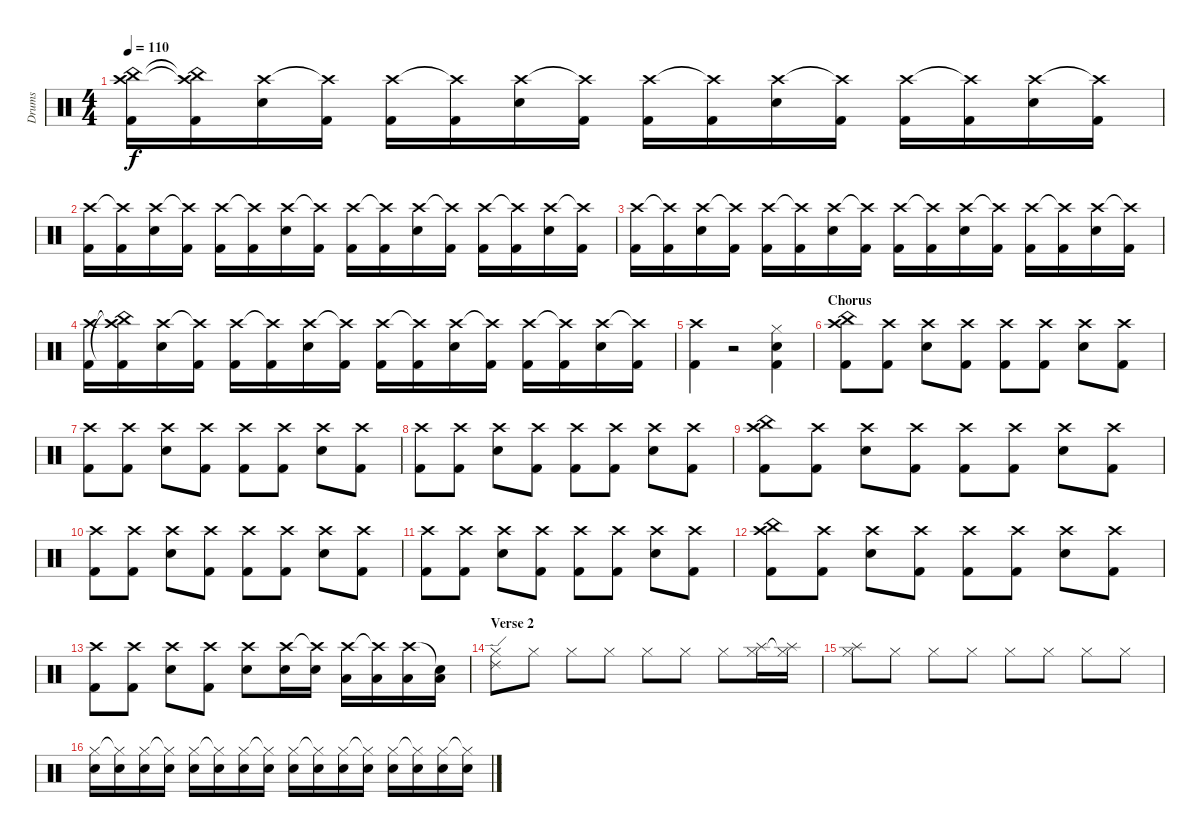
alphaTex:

\track ("Drums" "Drums") {instrument percussion}
\staff {score}
\articulation defaults
\ts (4 4)
\tempo 110
\clef neutral
\ks c
("Crash high (hit)" "China (hit)" "Kick (hit) 2").16{dy f} ("Crash high (hit)"{t} "China (hit)"{t} "Kick (hit) 2").16 ("Crash high (hit)" "Snare (hit) 2").16 ("Crash high (hit)"{t} "Kick (hit) 2").16 ("Crash high (hit)" "Kick (hit) 2").16 ("Crash high (hit)"{t} "Kick (hit) 2").16 ("Crash high (hit)" "Snare (hit) 2").16 ("Crash high (hit)"{t} "Kick (hit) 2").16 ("Crash high (hit)" "Kick (hit) 2").16 ("Crash high (hit)"{t} "Kick (hit) 2").16 ("Crash high (hit)" "Snare (hit) 2").16 ("Crash high (hit)"{t} "Kick (hit) 2").16 ("Crash high (hit)" "Kick (hit) 2").16 ("Crash high (hit)"{t} "Kick (hit) 2").16 ("Crash high (hit)" "Snare (hit) 2").16 ("Crash high (hit)"{t} "Kick (hit) 2").16 |
("Crash high (hit)" "Kick (hit) 2").16 ("Crash high (hit)"{t} "Kick (hit) 2").16 ("Crash high (hit)" "Snare (hit) 2").16 ("Crash high (hit)"{t} "Kick (hit) 2").16 ("Crash high (hit)" "Kick (hit) 2").16 ("Crash high (hit)"{t} "Kick (hit) 2").16 ("Crash high (hit)" "Snare (hit) 2").16 ("Crash high (hit)"{t} "Kick (hit) 2").16 ("Crash high (hit)" "Kick (hit) 2").16 ("Crash high (hit)"{t} "Kick (hit) 2").16 ("Crash high (hit)" "Snare (hit) 2").16 ("Crash high (hit)"{t} "Kick (hit) 2").16 ("Crash high (hit)" "Kick (hit) 2").16 ("Crash high (hit)"{t} "Kick (hit) 2").16 ("Crash high (hit)" "Snare (hit) 2").16 ("Crash high (hit)"{t} "Kick (hit) 2").16 |
("Crash high (hit)" "Kick (hit) 2").16 ("Crash high (hit)"{t} "Kick (hit) 2").16 ("Crash high (hit)" "Snare (hit) 2").16 ("Crash high (hit)"{t} "Kick (hit) 2").16 ("Crash high (hit)" "Kick (hit) 2").16 ("Crash high (hit)"{t} "Kick (hit) 2").16 ("Crash high (hit)" "Snare (hit) 2").16 ("Crash high (hit)"{t} "Kick (hit) 2").16 ("Crash high (hit)" "Kick (hit) 2").16 ("Crash high (hit)"{t} "Kick (hit) 2").16 ("Crash high (hit)" "Snare (hit) 2").16 ("Crash high (hit)"{t} "Kick (hit) 2").16 ("Crash high (hit)" "Kick (hit) 2").16 ("Crash high (hit)"{t} "Kick (hit) 2").16 ("Crash high (hit)" "Snare (hit) 2").16 ("Crash high (hit)"{t} "Kick (hit) 2").16 |
("Crash high (hit)" "Kick (hit) 2").16 ("Crash high (hit)"{t} "China (hit)"{t} "Kick (hit) 2").16 ("Crash high (hit)" "Snare (hit) 2").16 ("Crash high (hit)"{t} "Kick (hit) 2").16 ("Crash high (hit)" "Kick (hit) 2").16 ("Crash high (hit)"{t} "Kick (hit) 2").16 ("Crash high (hit)" "Snare (hit) 2").16 ("Crash high (hit)"{t} "Kick (hit) 2").16 ("Crash high (hit)" "Kick (hit) 2").16 ("Crash high (hit)"{t} "Kick (hit) 2").16 ("Crash high (hit)" "Snare (hit) 2").16 ("Crash high (hit)"{t} "Kick (hit) 2").16 ("Crash high (hit)" "Kick (hit) 2").16 ("Crash high (hit)"{t} "Kick (hit) 2").16 ("Crash high (hit)" "Snare (hit) 2").16 ("Crash high (hit)"{t} "Kick (hit) 2").16 |
("Crash high (hit)" "Kick (hit) 2").4 r.2 ("Hi-Hat (closed)" "Snare (hit) 2" "Kick (hit) 2").4 |
\section ("" "Chorus")
("Crash high (hit)" "China (hit)" "Kick (hit) 2").8 ("Crash high (hit)" "Kick (hit) 2").8 ("Crash high (hit)" "Snare (hit) 2").8 ("Crash high (hit)" "Kick (hit) 2").8 ("Crash high (hit)" "Kick (hit) 2").8 ("Crash high (hit)" "Kick (hit) 2").8 ("Crash high (hit)" "Snare (hit) 2").8 ("Crash high (hit)" "Kick (hit) 2").8 |
("Crash high (hit)" "Kick (hit) 2").8 ("Crash high (hit)" "Kick (hit) 2").8 ("Crash high (hit)" "Snare (hit) 2").8 ("Crash high (hit)" "Kick (hit) 2").8 ("Crash high (hit)" "Kick (hit) 2").8 ("Crash high (hit)" "Kick (hit) 2").8 ("Crash high (hit)" "Snare (hit) 2").8 ("Crash high (hit)" "Kick (hit) 2").8 |
("Crash high (hit)" "Kick (hit) 2").8 ("Crash high (hit)" "Kick (hit) 2").8 ("Crash high (hit)" "Snare (hit) 2").8 ("Crash high (hit)" "Kick (hit) 2").8 ("Crash high (hit)" "Kick (hit) 2").8 ("Crash high (hit)" "Kick (hit) 2").8 ("Crash high (hit)" "Snare (hit) 2").8 ("Crash high (hit)" "Kick (hit) 2").8 |
("Crash high (hit)" "China (hit)" "Kick (hit) 2").8 ("Crash high (hit)" "Kick (hit) 2").8 ("Crash high (hit)" "Snare (hit) 2").8 ("Crash high (hit)" "Kick (hit) 2").8 ("Crash high (hit)" "Kick (hit) 2").8 ("Crash high (hit)" "Kick (hit) 2").8 ("Crash high (hit)" "Snare (hit) 2").8 ("Crash high (hit)" "Kick (hit) 2").8 |
("Crash high (hit)" "Kick (hit) 2").8 ("Crash high (hit)" "Kick (hit) 2").8 ("Crash high (hit)" "Snare (hit) 2").8 ("Crash high (hit)" "Kick (hit) 2").8 ("Crash high (hit)" "Kick (hit) 2").8 ("Crash high (hit)" "Kick (hit) 2").8 ("Crash high (hit)" "Snare (hit) 2").8 ("Crash high (hit)" "Kick (hit) 2").8 |
("Crash high (hit)" "Kick (hit) 2").8 ("Crash high (hit)" "Kick (hit) 2").8 ("Crash high (hit)" "Snare (hit) 2").8 ("Crash high (hit)" "Kick (hit) 2").8 ("Crash high (hit)" "Kick (hit) 2").8 ("Crash high (hit)" "Kick (hit) 2").8 ("Crash high (hit)" "Snare (hit) 2").8 ("Crash high (hit)" "Kick (hit) 2").8 |
("Crash high (hit)" "China (hit)" "Kick (hit) 2").8 ("Crash high (hit)" "Kick (hit) 2").8 ("Crash high (hit)" "Snare (hit) 2").8 ("Crash high (hit)" "Kick (hit) 2").8 ("Crash high (hit)" "Kick (hit) 2").8 ("Crash high (hit)" "Kick (hit) 2").8 ("Crash high (hit)" "Snare (hit) 2").8 ("Crash high (hit)" "Kick (hit) 2").8 |
("Crash high (hit)" "Kick (hit) 2").8 ("Crash high (hit)" "Kick (hit) 2").8 ("Crash high (hit)" "Snare (hit) 2").8 ("Crash high (hit)" "Kick (hit) 2").8 ("Crash high (hit)" "Snare (hit) 2").8 ("Crash high (hit)" "Snare (hit) 2").16 ("Crash high (hit)"{t} "Snare (hit) 2").16 ("Crash high (hit)" "Low Tom (hit)").16 ("Crash high (hit)"{t} "Low Tom (hit)").16 ("Crash high (hit)" "Low Floor Tom (hit)").16 ("Snare (hit)"{t} "Low Floor Tom (hit)").16 |
\section ("" "Verse 2")
("Ride (edge) 2" "Hi-Hat (closed)").8 "Hi-Hat (closed)".8 "Hi-Hat (closed)".8 "Hi-Hat (closed)".8 "Hi-Hat (closed)".8 "Hi-Hat (closed)".8 "Hi-Hat (closed)".8 ("Splash (hit)" "Hi-Hat (closed)").16 ("Splash (hit)" "Hi-Hat (closed)"{t}).16 |
("Splash (hit)" "Hi-Hat (closed)").8 "Hi-Hat (closed)".8 "Hi-Hat (closed)".8 "Hi-Hat (closed)".8 "Hi-Hat (closed)".8 "Hi-Hat (closed)".8 "Hi-Hat (closed)".8 "Hi-Hat (closed)".8 |
("Snare (hit) 2" "Hi-Hat (closed)").16 ("Snare (hit) 2" "Hi-Hat (closed)"{t}).16 ("Snare (hit) 2" "Hi-Hat (closed)").16 ("Snare (hit) 2" "Hi-Hat (closed)"{t}).16 ("Snare (hit) 2" "Hi-Hat (closed)").16 ("Snare (hit) 2" "Hi-Hat (closed)"{t}).16 ("Snare (hit) 2" "Hi-Hat (closed)").16 ("Snare (hit) 2" "Hi-Hat (closed)"{t}).16 ("Snare (hit) 2" "Hi-Hat (closed)").16 ("Snare (hit) 2" "Hi-Hat (closed)"{t}).16 ("Snare (hit) 2" "Hi-Hat (closed)").16 ("Snare (hit) 2" "Hi-Hat (closed)"{t}).16 ("Snare (hit) 2" "Hi-Hat (closed)").16 ("Snare (hit) 2" "Hi-Hat (closed)"{t}).16 ("Snare (hit) 2" "Hi-Hat (closed)").16 ("Snare (hit) 2" "Hi-Hat (closed)"{t}).16
